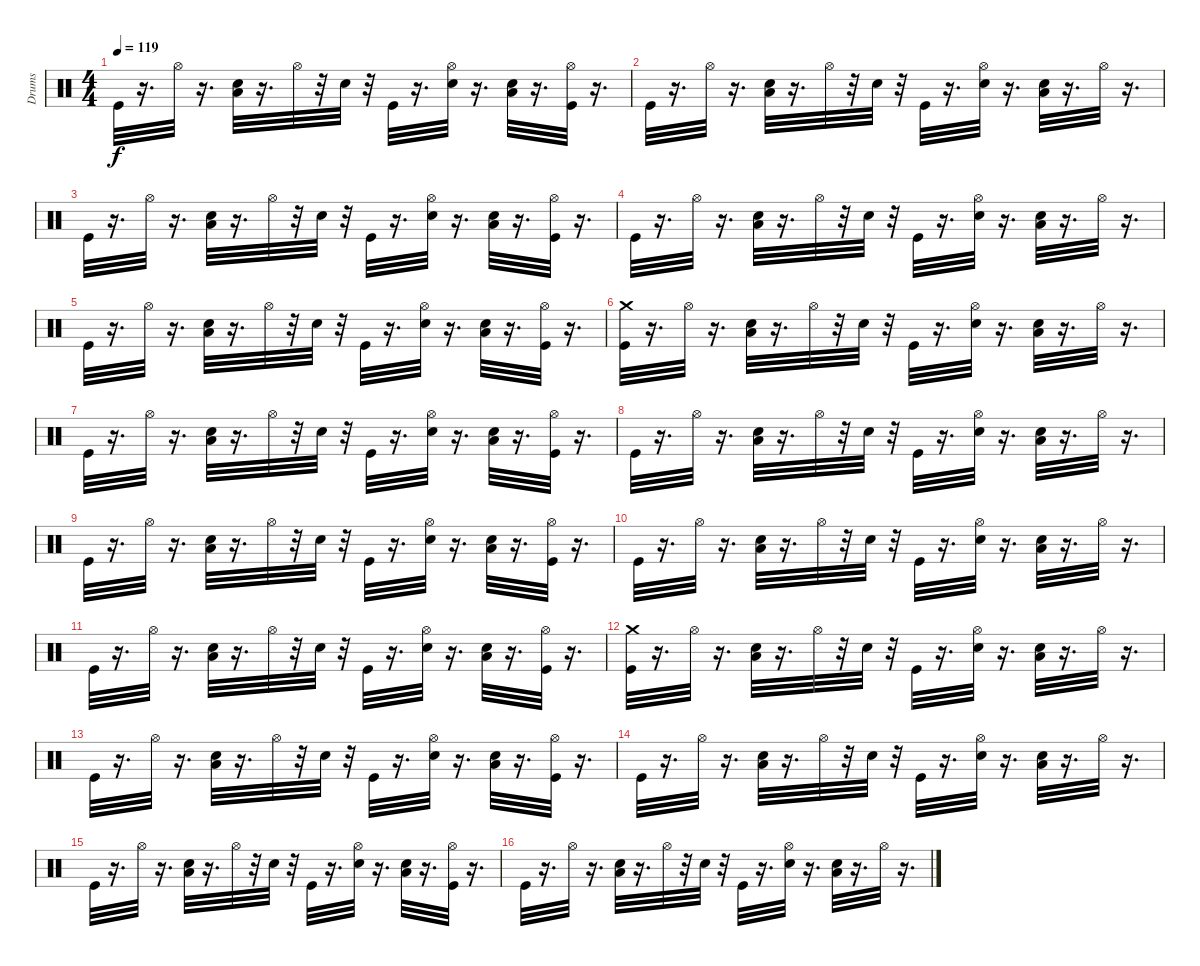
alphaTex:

\track ("Drums" "Drums") {instrument percussion}
\staff {score}
\articulation defaults
\ts (4 4)
\tempo 119
\clef neutral
\ks c "Kick (hit)".32{dy f}
r.16{d} "Hi-Hat (open)".32 r.16{d} ("Low Floor Tom (hit)" "Hand Clap (hit)").32 r.16{d} "Hi-Hat (open)".32 r.32 "Hand Clap (hit)".32 r.32 "Kick (hit)".32 r.16{d} ("Hi-Hat (open)" "Hand Clap (hit)").32 r.16{d} ("Low Floor Tom (hit)" "Hand Clap (hit)").32 r.16{d} ("Kick (hit)" "Hi-Hat (open)").32 r.16{d} |
"Kick (hit)".32 r.16{d} "Hi-Hat (open)".32 r.16{d} ("Low Floor Tom (hit)" "Hand Clap (hit)").32 r.16{d} "Hi-Hat (open)".32 r.32 "Hand Clap (hit)".32 r.32 "Kick (hit)".32 r.16{d} ("Hi-Hat (open)" "Hand Clap (hit)").32 r.16{d} ("Low Floor Tom (hit)" "Hand Clap (hit)").32 r.16{d} "Hi-Hat (open)".32 r.16{d} |
"Kick (hit)".32 r.16{d} "Hi-Hat (open)".32 r.16{d} ("Low Floor Tom (hit)" "Hand Clap (hit)").32 r.16{d} "Hi-Hat (open)".32 r.32 "Hand Clap (hit)".32 r.32 "Kick (hit)".32 r.16{d} ("Hi-Hat (open)" "Hand Clap (hit)").32 r.16{d} ("Low Floor Tom (hit)" "Hand Clap (hit)").32 r.16{d} ("Kick (hit)" "Hi-Hat (open)").32 r.16{d} |
"Kick (hit)".32 r.16{d} "Hi-Hat (open)".32 r.16{d} ("Low Floor Tom (hit)" "Hand Clap (hit)").32 r.16{d} "Hi-Hat (open)".32 r.32 "Hand Clap (hit)".32 r.32 "Kick (hit)".32 r.16{d} ("Hi-Hat (open)" "Hand Clap (hit)").32 r.16{d} ("Low Floor Tom (hit)" "Hand Clap (hit)").32 r.16{d} "Hi-Hat (open)".32 r.16{d} |
"Kick (hit)".32 r.16{d} "Hi-Hat (open)".32 r.16{d} ("Low Floor Tom (hit)" "Hand Clap (hit)").32 r.16{d} "Hi-Hat (open)".32 r.32 "Hand Clap (hit)".32 r.32 "Kick (hit)".32 r.16{d} ("Hi-Hat (open)" "Hand Clap (hit)").32 r.16{d} ("Low Floor Tom (hit)" "Hand Clap (hit)").32 r.16{d} ("Kick (hit)" "Hi-Hat (open)").32 r.16{d} |
("Crash medium (hit)" "Kick (hit)").32 r.16{d} "Hi-Hat (open)".32 r.16{d} ("Low Floor Tom (hit)" "Hand Clap (hit)").32 r.16{d} "Hi-Hat (open)".32 r.32 "Hand Clap (hit)".32 r.32 "Kick (hit)".32 r.16{d} ("Hi-Hat (open)" "Hand Clap (hit)").32 r.16{d} ("Low Floor Tom (hit)" "Hand Clap (hit)").32 r.16{d} "Hi-Hat (open)".32 r.16{d} |
"Kick (hit)".32 r.16{d} "Hi-Hat (open)".32 r.16{d} ("Low Floor Tom (hit)" "Hand Clap (hit)").32 r.16{d} "Hi-Hat (open)".32 r.32 "Hand Clap (hit)".32 r.32 "Kick (hit)".32 r.16{d} ("Hi-Hat (open)" "Hand Clap (hit)").32 r.16{d} ("Low Floor Tom (hit)" "Hand Clap (hit)").32 r.16{d} ("Kick (hit)" "Hi-Hat (open)").32 r.16{d} |
"Kick (hit)".32 r.16{d} "Hi-Hat (open)".32 r.16{d} ("Low Floor Tom (hit)" "Hand Clap (hit)").32 r.16{d} "Hi-Hat (open)".32 r.32 "Hand Clap (hit)".32 r.32 "Kick (hit)".32 r.16{d} ("Hi-Hat (open)" "Hand Clap (hit)").32 r.16{d} ("Low Floor Tom (hit)" "Hand Clap (hit)").32 r.16{d} "Hi-Hat (open)".32 r.16{d} |
"Kick (hit)".32 r.16{d} "Hi-Hat (open)".32 r.16{d} ("Low Floor Tom (hit)" "Hand Clap (hit)").32 r.16{d} "Hi-Hat (open)".32 r.32 "Hand Clap (hit)".32 r.32 "Kick (hit)".32 r.16{d} ("Hi-Hat (open)" "Hand Clap (hit)").32 r.16{d} ("Low Floor Tom (hit)" "Hand Clap (hit)").32 r.16{d} ("Kick (hit)" "Hi-Hat (open)").32 r.16{d} |
"Kick (hit)".32 r.16{d} "Hi-Hat (open)".32 r.16{d} ("Low Floor Tom (hit)" "Hand Clap (hit)").32 r.16{d} "Hi-Hat (open)".32 r.32 "Hand Clap (hit)".32 r.32 "Kick (hit)".32 r.16{d} ("Hi-Hat (open)" "Hand Clap (hit)").32 r.16{d} ("Low Floor Tom (hit)" "Hand Clap (hit)").32 r.16{d} "Hi-Hat (open)".32 r.16{d} |
"Kick (hit)".32 r.16{d} "Hi-Hat (open)".32 r.16{d} ("Low Floor Tom (hit)" "Hand Clap (hit)").32 r.16{d} "Hi-Hat (open)".32 r.32 "Hand Clap (hit)".32 r.32 "Kick (hit)".32 r.16{d} ("Hi-Hat (open)" "Hand Clap (hit)").32 r.16{d} ("Low Floor Tom (hit)" "Hand Clap (hit)").32 r.16{d} ("Kick (hit)" "Hi-Hat (open)").32 r.16{d} |
("Crash medium (hit)" "Kick (hit)").32 r.16{d} "Hi-Hat (open)".32 r.16{d} ("Low Floor Tom (hit)" "Hand Clap (hit)").32 r.16{d} "Hi-Hat (open)".32 r.32 "Hand Clap (hit)".32 r.32 "Kick (hit)".32 r.16{d} ("Hi-Hat (open)" "Hand Clap (hit)").32 r.16{d} ("Low Floor Tom (hit)" "Hand Clap (hit)").32 r.16{d} "Hi-Hat (open)".32 r.16{d} |
"Kick (hit)".32 r.16{d} "Hi-Hat (open)".32 r.16{d} ("Low Floor Tom (hit)" "Hand Clap (hit)").32 r.16{d} "Hi-Hat (open)".32 r.32 "Hand Clap (hit)".32 r.32 "Kick (hit)".32 r.16{d} ("Hi-Hat (open)" "Hand Clap (hit)").32 r.16{d} ("Low Floor Tom (hit)" "Hand Clap (hit)").32 r.16{d} ("Kick (hit)" "Hi-Hat (open)").32 r.16{d} |
"Kick (hit)".32 r.16{d} "Hi-Hat (open)".32 r.16{d} ("Low Floor Tom (hit)" "Hand Clap (hit)").32 r.16{d} "Hi-Hat (open)".32 r.32 "Hand Clap (hit)".32 r.32 "Kick (hit)".32 r.16{d} ("Hi-Hat (open)" "Hand Clap (hit)").32 r.16{d} ("Low Floor Tom (hit)" "Hand Clap (hit)").32 r.16{d} "Hi-Hat (open)".32 r.16{d} |
"Kick (hit)".32 r.16{d} "Hi-Hat (open)".32 r.16{d} ("Low Floor Tom (hit)" "Hand Clap (hit)").32 r.16{d} "Hi-Hat (open)".32 r.32 "Hand Clap (hit)".32 r.32 "Kick (hit)".32 r.16{d} ("Hi-Hat (open)" "Hand Clap (hit)").32 r.16{d} ("Low Floor Tom (hit)" "Hand Clap (hit)").32 r.16{d} ("Kick (hit)" "Hi-Hat (open)").32 r.16{d} |
"Kick (hit)".32 r.16{d} "Hi-Hat (open)".32 r.16{d} ("Low Floor Tom (hit)" "Hand Clap (hit)").32 r.16{d} "Hi-Hat (open)".32 r.32 "Hand Clap (hit)".32 r.32 "Kick (hit)".32 r.16{d} ("Hi-Hat (open)" "Hand Clap (hit)").32 r.16{d} ("Low Floor Tom (hit)" "Hand Clap (hit)").32 r.16{d} "Hi-Hat (open)".32 r.16{d}
